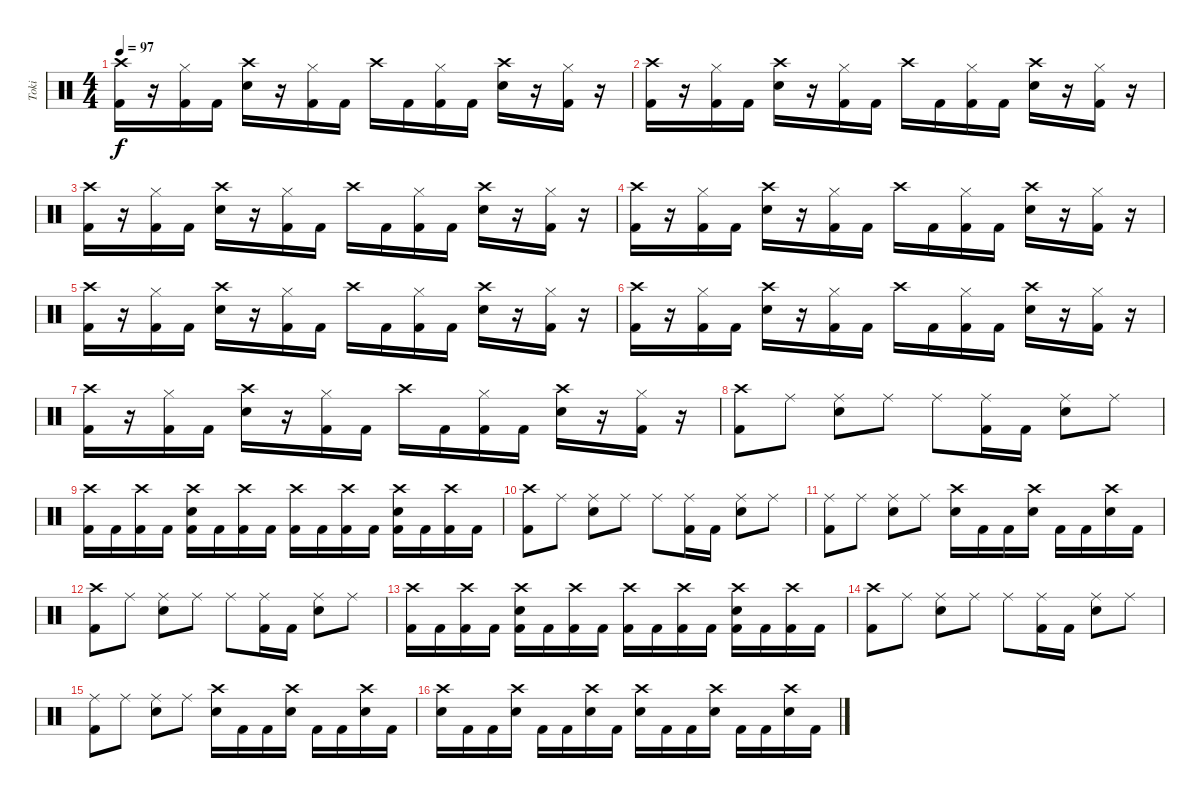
\track ("Toki" "Toki") {instrument percussion}
\staff {score}
\articulation defaults
\ts (4 4)
\tempo 97
\clef neutral
\ks c
("Crash high (hit)" "Kick (hit) 2").16{dy f} r.16 ("Hi-Hat (closed)" "Kick (hit) 2").16 "Kick (hit) 2".16 ("Crash high (hit)" "Electric Snare (hit)").16 r.16 ("Hi-Hat (closed)" "Kick (hit) 2").16 "Kick (hit) 2".16 "Crash high (hit)".16 "Kick (hit) 2".16 ("Hi-Hat (closed)" "Kick (hit) 2").16 "Kick (hit) 2".16 ("Crash high (hit)" "Electric Snare (hit)").16 r.16 ("Hi-Hat (closed)" "Kick (hit) 2").16 r.16 |
("Crash high (hit)" "Kick (hit) 2").16 r.16 ("Hi-Hat (closed)" "Kick (hit) 2").16 "Kick (hit) 2".16 ("Crash high (hit)" "Electric Snare (hit)").16 r.16 ("Hi-Hat (closed)" "Kick (hit) 2").16 "Kick (hit) 2".16 "Crash high (hit)".16 "Kick (hit) 2".16 ("Hi-Hat (closed)" "Kick (hit) 2").16 "Kick (hit) 2".16 ("Crash high (hit)" "Electric Snare (hit)").16 r.16 ("Hi-Hat (closed)" "Kick (hit) 2").16 r.16 |
("Crash high (hit)" "Kick (hit) 2").16 r.16 ("Hi-Hat (closed)" "Kick (hit) 2").16 "Kick (hit) 2".16 ("Crash high (hit)" "Electric Snare (hit)").16 r.16 ("Hi-Hat (closed)" "Kick (hit) 2").16 "Kick (hit) 2".16 "Crash high (hit)".16 "Kick (hit) 2".16 ("Hi-Hat (closed)" "Kick (hit) 2").16 "Kick (hit) 2".16 ("Crash high (hit)" "Electric Snare (hit)").16 r.16 ("Hi-Hat (closed)" "Kick (hit) 2").16 r.16 |
("Crash high (hit)" "Kick (hit) 2").16 r.16 ("Hi-Hat (closed)" "Kick (hit) 2").16 "Kick (hit) 2".16 ("Crash high (hit)" "Electric Snare (hit)").16 r.16 ("Hi-Hat (closed)" "Kick (hit) 2").16 "Kick (hit) 2".16 "Crash high (hit)".16 "Kick (hit) 2".16 ("Hi-Hat (closed)" "Kick (hit) 2").16 "Kick (hit) 2".16 ("Crash high (hit)" "Electric Snare (hit)").16 r.16 ("Hi-Hat (closed)" "Kick (hit) 2").16 r.16 |
("Crash high (hit)" "Kick (hit) 2").16 r.16 ("Hi-Hat (closed)" "Kick (hit) 2").16 "Kick (hit) 2".16 ("Crash high (hit)" "Electric Snare (hit)").16 r.16 ("Hi-Hat (closed)" "Kick (hit) 2").16 "Kick (hit) 2".16 "Crash high (hit)".16 "Kick (hit) 2".16 ("Hi-Hat (closed)" "Kick (hit) 2").16 "Kick (hit) 2".16 ("Crash high (hit)" "Electric Snare (hit)").16 r.16 ("Hi-Hat (closed)" "Kick (hit) 2").16 r.16 |
("Crash high (hit)" "Kick (hit) 2").16 r.16 ("Hi-Hat (closed)" "Kick (hit) 2").16 "Kick (hit) 2".16 ("Crash high (hit)" "Electric Snare (hit)").16 r.16 ("Hi-Hat (closed)" "Kick (hit) 2").16 "Kick (hit) 2".16 "Crash high (hit)".16 "Kick (hit) 2".16 ("Hi-Hat (closed)" "Kick (hit) 2").16 "Kick (hit) 2".16 ("Crash high (hit)" "Electric Snare (hit)").16 r.16 ("Hi-Hat (closed)" "Kick (hit) 2").16 r.16 |
("Crash high (hit)" "Kick (hit) 2").16 r.16 ("Hi-Hat (closed)" "Kick (hit) 2").16 "Kick (hit) 2".16 ("Crash high (hit)" "Electric Snare (hit)").16 r.16 ("Hi-Hat (closed)" "Kick (hit) 2").16 "Kick (hit) 2".16 "Crash high (hit)".16 "Kick (hit) 2".16 ("Hi-Hat (closed)" "Kick (hit) 2").16 "Kick (hit) 2".16 ("Crash high (hit)" "Electric Snare (hit)").16 r.16 ("Hi-Hat (closed)" "Kick (hit) 2").16 r.16 |
\section ("" "")
("Crash high (hit)" "Kick (hit) 2").8 "Ride (middle)".8 ("Ride (middle)" "Electric Snare (hit)").8 "Ride (middle)".8 "Ride (middle)".8 ("Ride (middle)" "Kick (hit) 2").16 "Kick (hit) 2".16 ("Ride (middle)" "Electric Snare (hit)").8 "Ride (middle)".8 |
("Crash high (hit)" "Kick (hit) 2").16 "Kick (hit) 2".16 ("Crash high (hit)" "Kick (hit) 2").16 "Kick (hit) 2".16 ("Crash high (hit)" "Electric Snare (hit)" "Kick (hit) 2").16 "Kick (hit) 2".16 ("Crash high (hit)" "Kick (hit) 2").16 "Kick (hit) 2".16 ("Crash high (hit)" "Kick (hit) 2").16 "Kick (hit) 2".16 ("Crash high (hit)" "Kick (hit) 2").16 "Kick (hit) 2".16 ("Crash high (hit)" "Electric Snare (hit)" "Kick (hit) 2").16 "Kick (hit) 2".16 ("Crash high (hit)" "Kick (hit) 2").16 "Kick (hit) 2".16 |
("Crash high (hit)" "Kick (hit) 2").8 "Ride (middle)".8 ("Ride (middle)" "Electric Snare (hit)").8 "Ride (middle)".8 "Ride (middle)".8 ("Ride (middle)" "Kick (hit) 2").16 "Kick (hit) 2".16 ("Ride (middle)" "Electric Snare (hit)").8 "Ride (middle)".8 |
("Ride (middle)" "Kick (hit) 2").8 "Ride (middle)".8 ("Ride (middle)" "Electric Snare (hit)").8 "Ride (middle)".8 ("Crash high (hit)" "Electric Snare (hit)").16 "Kick (hit) 2".16 "Kick (hit) 2".16 ("Crash high (hit)" "Electric Snare (hit)").16 "Kick (hit) 2".16 "Kick (hit) 2".16 ("Crash high (hit)" "Electric Snare (hit)").16 "Kick (hit) 2".16 |
("Crash high (hit)" "Kick (hit) 2").8 "Ride (middle)".8 ("Ride (middle)" "Electric Snare (hit)").8 "Ride (middle)".8 "Ride (middle)".8 ("Ride (middle)" "Kick (hit) 2").16 "Kick (hit) 2".16 ("Ride (middle)" "Electric Snare (hit)").8 "Ride (middle)".8 |
("Crash high (hit)" "Kick (hit) 2").16 "Kick (hit) 2".16 ("Crash high (hit)" "Kick (hit) 2").16 "Kick (hit) 2".16 ("Crash high (hit)" "Electric Snare (hit)" "Kick (hit) 2").16 "Kick (hit) 2".16 ("Crash high (hit)" "Kick (hit) 2").16 "Kick (hit) 2".16 ("Crash high (hit)" "Kick (hit) 2").16 "Kick (hit) 2".16 ("Crash high (hit)" "Kick (hit) 2").16 "Kick (hit) 2".16 ("Crash high (hit)" "Electric Snare (hit)" "Kick (hit) 2").16 "Kick (hit) 2".16 ("Crash high (hit)" "Kick (hit) 2").16 "Kick (hit) 2".16 |
("Crash high (hit)" "Kick (hit) 2").8 "Ride (middle)".8 ("Ride (middle)" "Electric Snare (hit)").8 "Ride (middle)".8 "Ride (middle)".8 ("Ride (middle)" "Kick (hit) 2").16 "Kick (hit) 2".16 ("Ride (middle)" "Electric Snare (hit)").8 "Ride (middle)".8 |
("Ride (middle)" "Kick (hit) 2").8 "Ride (middle)".8 ("Ride (middle)" "Electric Snare (hit)").8 "Ride (middle)".8 ("Crash high (hit)" "Electric Snare (hit)").16 "Kick (hit) 2".16 "Kick (hit) 2".16 ("Crash high (hit)" "Electric Snare (hit)").16 "Kick (hit) 2".16 "Kick (hit) 2".16 ("Crash high (hit)" "Electric Snare (hit)").16 "Kick (hit) 2".16 |
\section ("" "")
("Crash high (hit)" "Electric Snare (hit)").16 "Kick (hit) 2".16 "Kick (hit) 2".16 ("Crash high (hit)" "Electric Snare (hit)").16 "Kick (hit) 2".16 "Kick (hit) 2".16 ("Crash high (hit)" "Electric Snare (hit)").16 "Kick (hit) 2".16 ("Crash high (hit)" "Electric Snare (hit)").16 "Kick (hit) 2".16 "Kick (hit) 2".16 ("Crash high (hit)" "Electric Snare (hit)").16 "Kick (hit) 2".16 "Kick (hit) 2".16 ("Crash high (hit)" "Electric Snare (hit)").16 "Kick (hit) 2".16
